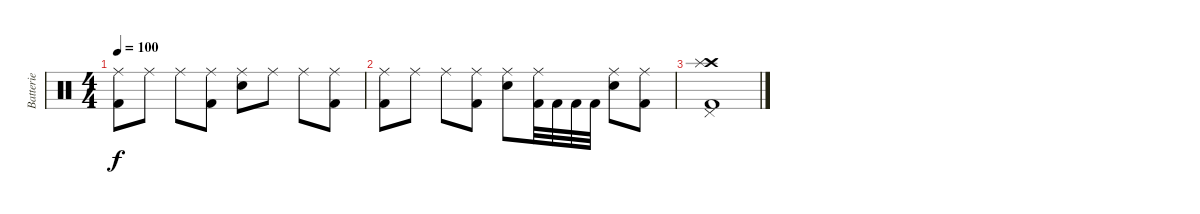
\track ("Batterie" "Batterie") {instrument percussion}
\staff {score}
\articulation defaults
\ts (4 4)
\tempo 100
\clef neutral
\ks c
("Ride (middle)" "Kick (hit) 2").8{dy f} "Ride (middle)".8 "Ride (middle)".8 ("Ride (middle)" "Kick (hit) 2").8 ("Ride (middle)" "Electric Snare (hit)").8 "Ride (middle)".8 "Ride (middle)".8 ("Ride (middle)" "Kick (hit) 2").8 |
("Ride (middle)" "Kick (hit) 2").8 "Ride (middle)".8 "Ride (middle)".8 ("Ride (middle)" "Kick (hit) 2").8 ("Ride (middle)" "Electric Snare (hit)").8 ("Ride (middle)" "Kick (hit) 2").32 "Kick (hit) 2".32 "Kick (hit) 2".32 "Kick (hit) 2".32 ("Ride (middle)" "Electric Snare (hit)").8 ("Ride (middle)" "Kick (hit) 2").8 |
("Crash high (hit)" "Pedal Hi-Hat (hit)" "Splash (hit)" "Kick (hit) 2").1
